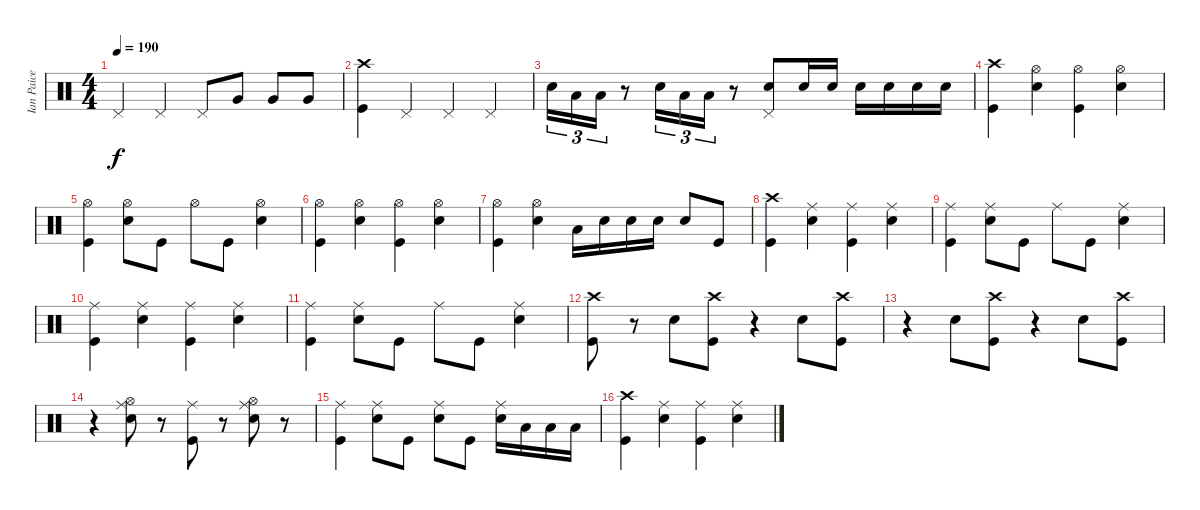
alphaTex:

\track ("Ian Paice" "Ian Paice") {instrument percussion}
\staff {score}
\articulation defaults
\ts (4 4)
\tempo 190
\clef neutral
\ks c "Pedal Hi-Hat (hit)".4{dy f} "Pedal Hi-Hat (hit)".4 "Pedal Hi-Hat (hit)".8 "Very Low Tom (hit)".8 "Very Low Tom (hit)".8 "Very Low Tom (hit)".8
|
("Crash high (hit)" "Kick (hit)").4 "Pedal Hi-Hat (hit)".4 "Pedal Hi-Hat (hit)".4 "Pedal Hi-Hat (hit)".4 |
"Snare (hit) 2".16{tu (3 2)} "Low Tom (hit)".16{tu (3 2)} "Low Tom (hit)".16{tu (3 2)} r.8 "Snare (hit) 2".16{tu (3 2)} "Low Tom (hit)".16{tu (3 2)} "Low Tom (hit)".16{tu (3 2)} r.8 ("Snare (hit) 2" "Pedal Hi-Hat (hit)").8 "Snare (hit) 2".16 "Snare (hit) 2".16 "Snare (hit) 2".16 "Snare (hit) 2".16 "Snare (hit) 2".16 "Snare (hit) 2".16 |
("Kick (hit)" "Crash high (hit)").4 ("Hi-Hat (open)" "Snare (hit) 2").4 ("Hi-Hat (open)" "Kick (hit)").4 ("Snare (hit) 2" "Hi-Hat (open)").4 |
("Kick (hit)" "Hi-Hat (open)").4 ("Hi-Hat (open)" "Snare (hit) 2").8 "Kick (hit)".8 "Hi-Hat (open)".8 "Kick (hit)".8 ("Hi-Hat (open)" "Snare (hit) 2").4 |
("Hi-Hat (open)" "Kick (hit)").4 ("Snare (hit) 2" "Hi-Hat (open)").4 ("Hi-Hat (open)" "Kick (hit)").4 ("Hi-Hat (open)" "Snare (hit) 2").4 |
("Kick (hit)" "Hi-Hat (open)").4 ("Snare (hit) 2" "Hi-Hat (open)").4 "Low Tom (hit)".16 "Snare (hit) 2".16 "Snare (hit) 2".16 "Snare (hit) 2".16 "Snare (hit) 2".8 "Kick (hit)".8 |
("Crash high (hit)" "Kick (hit)").4 ("Snare (hit) 2" "Ride (middle)").4 ("Ride (middle)" "Kick (hit)").4 ("Ride (middle)" "Snare (hit) 2").4 |
("Ride (middle)" "Kick (hit)").4 ("Snare (hit) 2" "Ride (middle)").8 "Kick (hit)".8 "Ride (middle)".8 "Kick (hit)".8 ("Ride (middle)" "Snare (hit) 2").4 |
("Ride (middle)" "Kick (hit)").4 ("Snare (hit) 2" "Ride (middle)").4 ("Ride (middle)" "Kick (hit)").4 ("Ride (middle)" "Snare (hit) 2").4 |
("Ride (middle)" "Kick (hit)").4 ("Snare (hit) 2" "Ride (middle)").8 "Kick (hit)".8 "Ride (middle)".8 "Kick (hit)".8 ("Ride (middle)" "Snare (hit) 2").4 |
("Kick (hit)" "Crash high (hit)").8 r.8 "Snare (hit) 2".8 ("Kick (hit)" "Crash high (hit)").8 r.4 "Snare (hit) 2".8 ("Kick (hit)" "Crash high (hit)").8 |
r.4 "Snare (hit) 2".8 ("Kick (hit)" "Crash high (hit)").8 r.4 "Snare (hit) 2".8 ("Kick (hit)" "Crash high (hit)").8 |
r.4 ("Hi-Hat (open)" "Ride (middle)" "Snare (hit) 2").8 r.8 ("Ride (middle)" "Kick (hit)").8 r.8 ("Hi-Hat (open)" "Ride (middle)" "Snare (hit) 2").8 r.8 |
("Ride (middle)" "Kick (hit)").4 ("Ride (middle)" "Snare (hit) 2").8 "Kick (hit)".8 ("Ride (middle)" "Snare (hit) 2").8 "Kick (hit)".8 ("Ride (middle)" "Snare (hit) 2").16 "Low Tom (hit)".16 "Low Tom (hit)".16 "Low Tom (hit)".16 |
("Crash high (hit)" "Kick (hit)").4 ("Snare (hit) 2" "Ride (middle)").4 ("Ride (middle)" "Kick (hit)").4 ("Ride (middle)" "Snare (hit) 2").4
